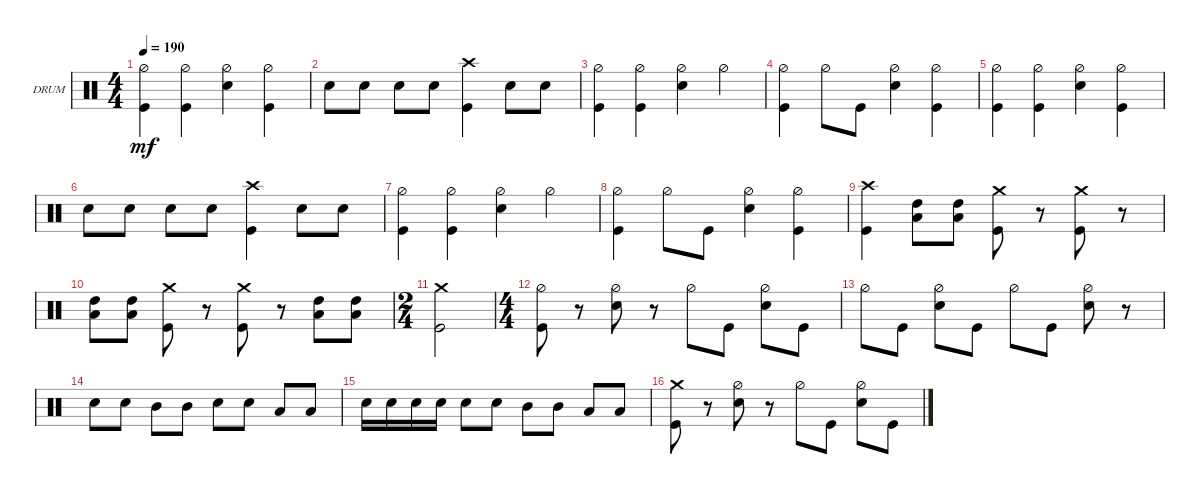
\defaultSystemsLayout 4
\bracketExtendMode groupsimilarinstruments
\firstSystemTrackNameOrientation horizontal
\otherSystemsTrackNameOrientation horizontal
\track ("Drums" "DRUM") {instrument percussion}
\staff {score}
\articulation defaults
\ts (4 4)
\tempo 190
\clef neutral
\ks c
("Kick (hit)" "Hi-Hat (half)").4{dy mf} ("Kick (hit)" "Hi-Hat (half)").4 ("Snare (hit) 2" "Hi-Hat (half)").4 ("Hi-Hat (half)" "Kick (hit)").4 |
"Snare (hit) 2".8 "Snare (hit) 2".8 "Snare (hit) 2".8 "Snare (hit) 2".8 ("Crash high (hit)" "Kick (hit)").4 "Snare (hit) 2".8 "Snare (hit) 2".8 |
("Kick (hit)" "Hi-Hat (half)").4 ("Kick (hit)" "Hi-Hat (half)").4 ("Snare (hit) 2" "Hi-Hat (half)").4 "Hi-Hat (half)".4 |
("Kick (hit)" "Hi-Hat (half)").4 "Hi-Hat (half)".8 "Kick (hit)".8 ("Snare (hit) 2" "Hi-Hat (half)").4 ("Kick (hit)" "Hi-Hat (half)").4 |
("Kick (hit)" "Hi-Hat (half)").4 ("Kick (hit)" "Hi-Hat (half)").4 ("Snare (hit) 2" "Hi-Hat (half)").4 ("Hi-Hat (half)" "Kick (hit)").4 |
"Snare (hit) 2".8 "Snare (hit) 2".8 "Snare (hit) 2".8 "Snare (hit) 2".8 ("Crash high (hit)" "Kick (hit)").4 "Snare (hit) 2".8 "Snare (hit) 2".8 |
("Kick (hit)" "Hi-Hat (half)").4 ("Kick (hit)" "Hi-Hat (half)").4 ("Snare (hit) 2" "Hi-Hat (half)").4 "Hi-Hat (half)".4 |
("Kick (hit)" "Hi-Hat (half)").4 "Hi-Hat (half)".8 "Kick (hit)".8 ("Snare (hit) 2" "Hi-Hat (half)").4 ("Kick (hit)" "Hi-Hat (half)").4 |
("Crash high (hit)" "Kick (hit)").4 ("High Tom (hit)" "Low Tom (hit)").8 ("High Tom (hit)" "Low Tom (hit)").8 ("Kick (hit)" "Crash medium (hit)").8 r.8 ("Kick (hit)" "Crash medium (hit)").8 r.8 |
("High Tom (hit)" "Low Tom (hit)").8 ("High Tom (hit)" "Low Tom (hit)").8 ("Kick (hit)" "Crash medium (hit)").8 r.8 ("Kick (hit)" "Crash medium (hit)").8 r.8 ("High Tom (hit)" "Low Tom (hit)").8 ("High Tom (hit)" "Low Tom (hit)").8 |
\ts (2 4)
("Kick (hit)" "Crash medium (hit)").2 |
\ts (4 4)
("Kick (hit)" "Hi-Hat (half)").8 r.8 ("Snare (hit) 2" "Hi-Hat (half)").8 r.8 "Hi-Hat (half)".8 "Kick (hit)".8 ("Snare (hit) 2" "Hi-Hat (half)").8 "Kick (hit)".8 |
"Hi-Hat (half)".8 "Kick (hit)".8 ("Snare (hit) 2" "Hi-Hat (half)").8 "Kick (hit)".8 "Hi-Hat (half)".8 "Kick (hit)".8 ("Snare (hit) 2" "Hi-Hat (half)").8 r.8 |
"Snare (hit) 2".8 "Snare (hit) 2".8 "Mid Tom (hit)".8 "Mid Tom (hit)".8 "Snare (hit) 2".8 "Snare (hit) 2".8 "Low Tom (hit)".8 "Low Tom (hit)".8 |
"Snare (hit) 2".16 "Snare (hit) 2".16 "Snare (hit) 2".16 "Snare (hit) 2".16 "Snare (hit) 2".8 "Snare (hit) 2".8 "Mid Tom (hit)".8 "Mid Tom (hit)".8 "Low Tom (hit)".8 "Low Tom (hit)".8 |
("Kick (hit)" "Crash medium (hit)").8 r.8 ("Snare (hit) 2" "Hi-Hat (half)").8 r.8 "Hi-Hat (half)".8 "Kick (hit)".8 ("Snare (hit) 2" "Hi-Hat (half)").8 "Kick (hit)".8
